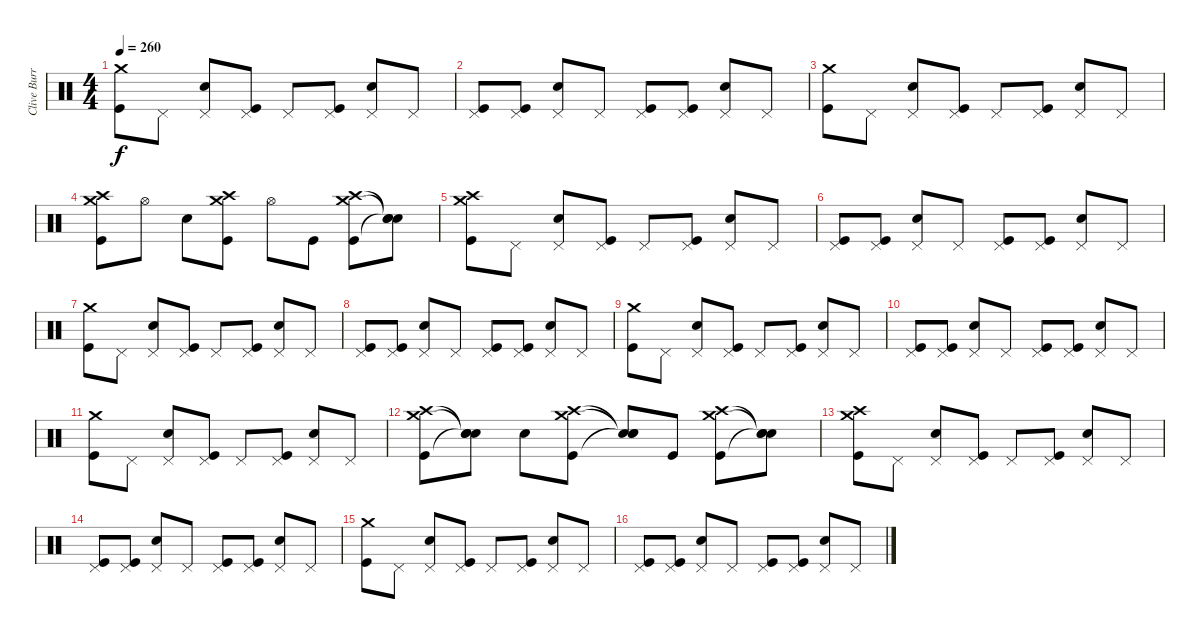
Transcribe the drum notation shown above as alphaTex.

\track ("Clive Burr" "Clive Burr") {instrument percussion}
\staff {score}
\articulation defaults
\ts (4 4)
\tempo 260
\clef neutral
\ks c
("Crash medium (hit)" "Kick (hit)").8{dy f} "Pedal Hi-Hat (hit)".8 ("Pedal Hi-Hat (hit)" "Snare (hit) 2").8 ("Pedal Hi-Hat (hit)" "Kick (hit)").8 "Pedal Hi-Hat (hit)".8 ("Pedal Hi-Hat (hit)" "Kick (hit)").8 ("Pedal Hi-Hat (hit)" "Snare (hit) 2").8 "Pedal Hi-Hat (hit)".8 |
("Pedal Hi-Hat (hit)" "Kick (hit)").8 ("Pedal Hi-Hat (hit)" "Kick (hit)").8 ("Pedal Hi-Hat (hit)" "Snare (hit) 2").8 "Pedal Hi-Hat (hit)".8 ("Pedal Hi-Hat (hit)" "Kick (hit)").8 ("Pedal Hi-Hat (hit)" "Kick (hit)").8 ("Pedal Hi-Hat (hit)" "Snare (hit) 2").8 "Pedal Hi-Hat (hit)".8 |
("Crash medium (hit)" "Kick (hit)").8 "Pedal Hi-Hat (hit)".8 ("Pedal Hi-Hat (hit)" "Snare (hit) 2").8 ("Pedal Hi-Hat (hit)" "Kick (hit)").8 "Pedal Hi-Hat (hit)".8 ("Pedal Hi-Hat (hit)" "Kick (hit)").8 ("Pedal Hi-Hat (hit)" "Snare (hit) 2").8 "Pedal Hi-Hat (hit)".8 |
("Crash medium (hit)" "Crash high (hit)" "Kick (hit)").8 "Hi-Hat (open)".8 "Snare (hit) 2".8 ("Crash medium (hit)" "Crash high (hit)" "Kick (hit)").8 "Hi-Hat (open)".8 "Kick (hit)".8 ("Crash medium (hit)" "Crash high (hit)" "Kick (hit)").8 ("Snare (hit)"{t} "Snare (hit)"{t} "Snare (hit)"{t}).8 |
("Crash medium (hit)" "Crash high (hit)" "Kick (hit)").8 "Pedal Hi-Hat (hit)".8 ("Pedal Hi-Hat (hit)" "Snare (hit) 2").8 ("Pedal Hi-Hat (hit)" "Kick (hit)").8 "Pedal Hi-Hat (hit)".8 ("Pedal Hi-Hat (hit)" "Kick (hit)").8 ("Pedal Hi-Hat (hit)" "Snare (hit) 2").8 "Pedal Hi-Hat (hit)".8 |
("Pedal Hi-Hat (hit)" "Kick (hit)").8 ("Pedal Hi-Hat (hit)" "Kick (hit)").8 ("Pedal Hi-Hat (hit)" "Snare (hit) 2").8 "Pedal Hi-Hat (hit)".8 ("Pedal Hi-Hat (hit)" "Kick (hit)").8 ("Pedal Hi-Hat (hit)" "Kick (hit)").8 ("Pedal Hi-Hat (hit)" "Snare (hit) 2").8 "Pedal Hi-Hat (hit)".8 |
("Crash medium (hit)" "Kick (hit)").8 "Pedal Hi-Hat (hit)".8 ("Pedal Hi-Hat (hit)" "Snare (hit) 2").8 ("Pedal Hi-Hat (hit)" "Kick (hit)").8 "Pedal Hi-Hat (hit)".8 ("Pedal Hi-Hat (hit)" "Kick (hit)").8 ("Pedal Hi-Hat (hit)" "Snare (hit) 2").8 "Pedal Hi-Hat (hit)".8 |
("Pedal Hi-Hat (hit)" "Kick (hit)").8 ("Pedal Hi-Hat (hit)" "Kick (hit)").8 ("Pedal Hi-Hat (hit)" "Snare (hit) 2").8 "Pedal Hi-Hat (hit)".8 ("Pedal Hi-Hat (hit)" "Kick (hit)").8 ("Pedal Hi-Hat (hit)" "Kick (hit)").8 ("Pedal Hi-Hat (hit)" "Snare (hit) 2").8 "Pedal Hi-Hat (hit)".8 |
("Crash medium (hit)" "Kick (hit)").8 "Pedal Hi-Hat (hit)".8 ("Pedal Hi-Hat (hit)" "Snare (hit) 2").8 ("Pedal Hi-Hat (hit)" "Kick (hit)").8 "Pedal Hi-Hat (hit)".8 ("Pedal Hi-Hat (hit)" "Kick (hit)").8 ("Pedal Hi-Hat (hit)" "Snare (hit) 2").8 "Pedal Hi-Hat (hit)".8 |
("Pedal Hi-Hat (hit)" "Kick (hit)").8 ("Pedal Hi-Hat (hit)" "Kick (hit)").8 ("Pedal Hi-Hat (hit)" "Snare (hit) 2").8 "Pedal Hi-Hat (hit)".8 ("Pedal Hi-Hat (hit)" "Kick (hit)").8 ("Pedal Hi-Hat (hit)" "Kick (hit)").8 ("Pedal Hi-Hat (hit)" "Snare (hit) 2").8 "Pedal Hi-Hat (hit)".8 |
("Crash medium (hit)" "Kick (hit)").8 "Pedal Hi-Hat (hit)".8 ("Pedal Hi-Hat (hit)" "Snare (hit) 2").8 ("Pedal Hi-Hat (hit)" "Kick (hit)").8 "Pedal Hi-Hat (hit)".8 ("Pedal Hi-Hat (hit)" "Kick (hit)").8 ("Pedal Hi-Hat (hit)" "Snare (hit) 2").8 "Pedal Hi-Hat (hit)".8 |
("Crash medium (hit)" "Crash high (hit)" "Kick (hit)").8 ("Snare (hit)"{t} "Snare (hit)"{t} "Snare (hit)"{t}).8 "Snare (hit) 2".8 ("Crash medium (hit)" "Crash high (hit)" "Kick (hit)").8 ("Snare (hit)"{t} "Snare (hit)"{t} "Snare (hit)"{t}).8 "Kick (hit)".8 ("Crash medium (hit)" "Crash high (hit)" "Kick (hit)").8 ("Snare (hit)"{t} "Snare (hit)"{t} "Snare (hit)"{t}).8 |
("Crash medium (hit)" "Crash high (hit)" "Kick (hit)").8 "Pedal Hi-Hat (hit)".8 ("Pedal Hi-Hat (hit)" "Snare (hit) 2").8 ("Pedal Hi-Hat (hit)" "Kick (hit)").8 "Pedal Hi-Hat (hit)".8 ("Pedal Hi-Hat (hit)" "Kick (hit)").8 ("Pedal Hi-Hat (hit)" "Snare (hit) 2").8 "Pedal Hi-Hat (hit)".8 |
("Pedal Hi-Hat (hit)" "Kick (hit)").8 ("Pedal Hi-Hat (hit)" "Kick (hit)").8 ("Pedal Hi-Hat (hit)" "Snare (hit) 2").8 "Pedal Hi-Hat (hit)".8 ("Pedal Hi-Hat (hit)" "Kick (hit)").8 ("Pedal Hi-Hat (hit)" "Kick (hit)").8 ("Pedal Hi-Hat (hit)" "Snare (hit) 2").8 "Pedal Hi-Hat (hit)".8 |
("Crash medium (hit)" "Kick (hit)").8 "Pedal Hi-Hat (hit)".8 ("Pedal Hi-Hat (hit)" "Snare (hit) 2").8 ("Pedal Hi-Hat (hit)" "Kick (hit)").8 "Pedal Hi-Hat (hit)".8 ("Pedal Hi-Hat (hit)" "Kick (hit)").8 ("Pedal Hi-Hat (hit)" "Snare (hit) 2").8 "Pedal Hi-Hat (hit)".8 |
("Pedal Hi-Hat (hit)" "Kick (hit)").8 ("Pedal Hi-Hat (hit)" "Kick (hit)").8 ("Pedal Hi-Hat (hit)" "Snare (hit) 2").8 "Pedal Hi-Hat (hit)".8 ("Pedal Hi-Hat (hit)" "Kick (hit)").8 ("Pedal Hi-Hat (hit)" "Kick (hit)").8 ("Pedal Hi-Hat (hit)" "Snare (hit) 2").8 "Pedal Hi-Hat (hit)".8
